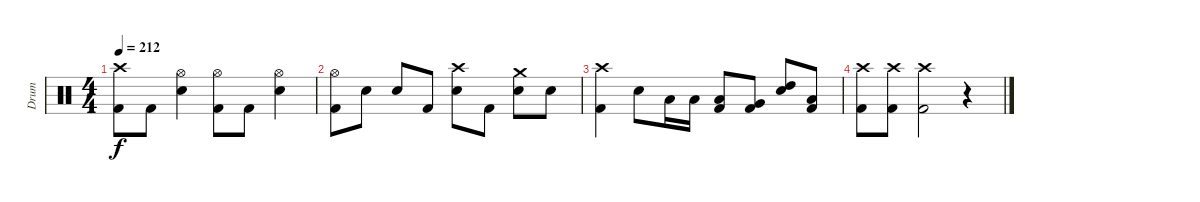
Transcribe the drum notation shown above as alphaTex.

\track ("Drum" "Drum") {instrument percussion}
\staff {score}
\articulation defaults
\ts (4 4)
\tempo 212
\clef neutral
\ks c
("Crash high (hit)" "Kick (hit) 2").8{dy f} "Kick (hit) 2".8 ("Hi-Hat (open)" "Electric Snare (hit)").4 ("Hi-Hat (open)" "Kick (hit) 2").8 "Kick (hit) 2".8 ("Hi-Hat (open)" "Electric Snare (hit)").4 |
("Hi-Hat (open)" "Kick (hit) 2").8 "Electric Snare (hit)".8 "Electric Snare (hit)".8 "Kick (hit) 2".8 ("Crash high (hit)" "Electric Snare (hit)").8 "Kick (hit) 2".8 ("Crash medium (hit)" "Electric Snare (hit)").8 "Electric Snare (hit)".8 |
("Crash high (hit)" "Kick (hit) 2").4 "Electric Snare (hit)".8 "Low Tom (hit)".16 "Low Tom (hit)".16 ("Low Tom (hit)" "Kick (hit) 2").8 ("Very Low Tom (hit)" "Kick (hit) 2").8 ("High Tom (hit)" "Electric Snare (hit)").8 ("Low Tom (hit)" "Kick (hit) 2").8 |
("Crash high (hit)" "Kick (hit) 2").8 ("Crash high (hit)" "Kick (hit) 2").8 ("Crash high (hit)" "Kick (hit) 2").2 r.4
